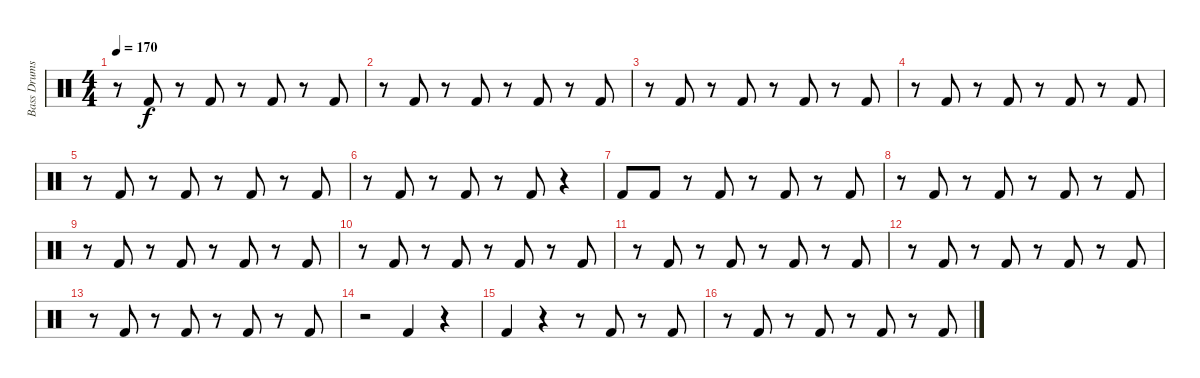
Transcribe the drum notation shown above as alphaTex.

\track ("Bass Drums" "Bass Drums") {instrument percussion}
\staff {score}
\articulation defaults
\ts (4 4)
\tempo 170
\clef neutral
\ks c
r.8{dy f} "Kick (hit) 2".8 r.8 "Kick (hit) 2".8 r.8 "Kick (hit) 2".8 r.8 "Kick (hit) 2".8 |
r.8 "Kick (hit) 2".8 r.8 "Kick (hit) 2".8 r.8 "Kick (hit) 2".8 r.8 "Kick (hit) 2".8 |
r.8 "Kick (hit) 2".8 r.8 "Kick (hit) 2".8 r.8 "Kick (hit) 2".8 r.8 "Kick (hit) 2".8 |
r.8 "Kick (hit) 2".8 r.8 "Kick (hit) 2".8 r.8 "Kick (hit) 2".8 r.8 "Kick (hit) 2".8 |
r.8 "Kick (hit) 2".8 r.8 "Kick (hit) 2".8 r.8 "Kick (hit) 2".8 r.8 "Kick (hit) 2".8 |
r.8 "Kick (hit) 2".8 r.8 "Kick (hit) 2".8 r.8 "Kick (hit) 2".8 r.4 |
"Kick (hit) 2".8 "Kick (hit) 2".8 r.8 "Kick (hit) 2".8 r.8 "Kick (hit) 2".8 r.8 "Kick (hit) 2".8 |
r.8 "Kick (hit) 2".8 r.8 "Kick (hit) 2".8 r.8 "Kick (hit) 2".8 r.8 "Kick (hit) 2".8 |
r.8 "Kick (hit) 2".8 r.8 "Kick (hit) 2".8 r.8 "Kick (hit) 2".8 r.8 "Kick (hit) 2".8 |
r.8 "Kick (hit) 2".8 r.8 "Kick (hit) 2".8 r.8 "Kick (hit) 2".8 r.8 "Kick (hit) 2".8 |
r.8 "Kick (hit) 2".8 r.8 "Kick (hit) 2".8 r.8 "Kick (hit) 2".8 r.8 "Kick (hit) 2".8 |
r.8 "Kick (hit) 2".8 r.8 "Kick (hit) 2".8 r.8 "Kick (hit) 2".8 r.8 "Kick (hit) 2".8 |
r.8 "Kick (hit) 2".8 r.8 "Kick (hit) 2".8 r.8 "Kick (hit) 2".8 r.8 "Kick (hit) 2".8 |
r.2 "Kick (hit) 2".4 r.4 |
"Kick (hit) 2".4 r.4 r.8 "Kick (hit) 2".8 r.8 "Kick (hit) 2".8 |
r.8 "Kick (hit) 2".8 r.8 "Kick (hit) 2".8 r.8 "Kick (hit) 2".8 r.8 "Kick (hit) 2".8
